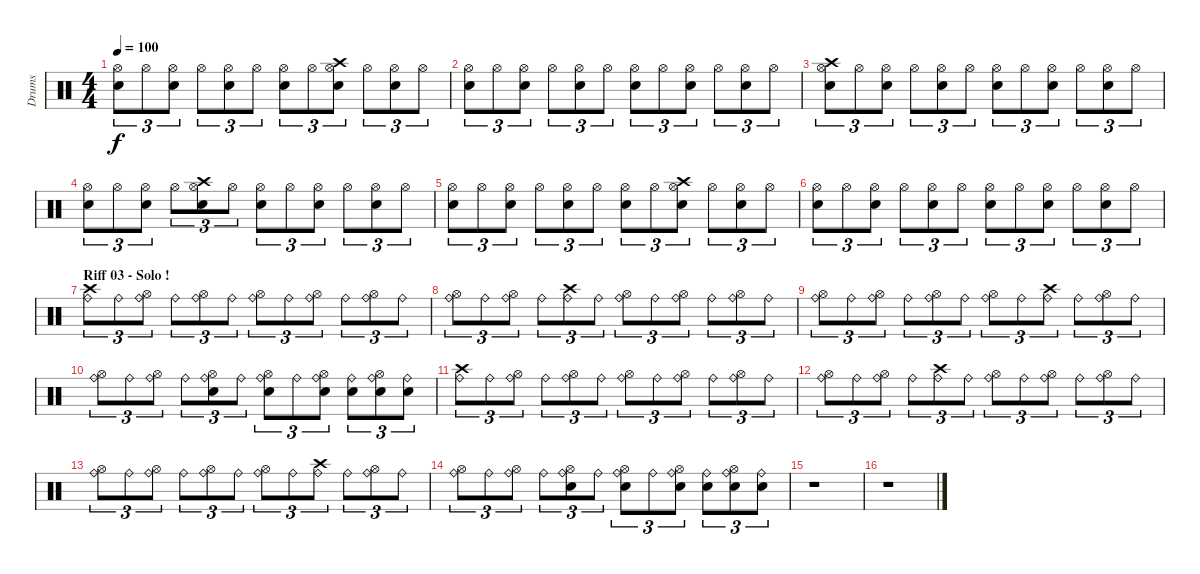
\track ("Drums" "Drums") {instrument percussion}
\staff {score}
\articulation defaults
\ts (4 4)
\tempo 100
\clef neutral
\ks c
("Hi-Hat (open)" "Snare (hit) 2").8{tu (3 2) dy f} "Hi-Hat (open)".8{tu (3 2)} ("Hi-Hat (open)" "Snare (hit) 2").8{tu (3 2)} "Hi-Hat (open)".8{tu (3 2)} ("Hi-Hat (open)" "Snare (hit) 2").8{tu (3 2)} "Hi-Hat (open)".8{tu (3 2)} ("Hi-Hat (open)" "Snare (hit) 2").8{tu (3 2)} "Hi-Hat (open)".8{tu (3 2)} ("Hi-Hat (open)" "Snare (hit) 2" "Crash high (hit)").8{tu (3 2)} "Hi-Hat (open)".8{tu (3 2)} ("Hi-Hat (open)" "Snare (hit) 2").8{tu (3 2)} "Hi-Hat (open)".8{tu (3 2)} |
("Hi-Hat (open)" "Snare (hit) 2").8{tu (3 2)} "Hi-Hat (open)".8{tu (3 2)} ("Hi-Hat (open)" "Snare (hit) 2").8{tu (3 2)} "Hi-Hat (open)".8{tu (3 2)} ("Hi-Hat (open)" "Snare (hit) 2").8{tu (3 2)} "Hi-Hat (open)".8{tu (3 2)} ("Hi-Hat (open)" "Snare (hit) 2").8{tu (3 2)} "Hi-Hat (open)".8{tu (3 2)} ("Hi-Hat (open)" "Snare (hit) 2").8{tu (3 2)} "Hi-Hat (open)".8{tu (3 2)} ("Hi-Hat (open)" "Snare (hit) 2").8{tu (3 2)} "Hi-Hat (open)".8{tu (3 2)} |
("Hi-Hat (open)" "Snare (hit) 2" "Crash high (hit)").8{tu (3 2)} "Hi-Hat (open)".8{tu (3 2)} ("Hi-Hat (open)" "Snare (hit) 2").8{tu (3 2)} "Hi-Hat (open)".8{tu (3 2)} ("Hi-Hat (open)" "Snare (hit) 2").8{tu (3 2)} "Hi-Hat (open)".8{tu (3 2)} ("Hi-Hat (open)" "Snare (hit) 2").8{tu (3 2)} "Hi-Hat (open)".8{tu (3 2)} ("Hi-Hat (open)" "Snare (hit) 2").8{tu (3 2)} "Hi-Hat (open)".8{tu (3 2)} ("Hi-Hat (open)" "Snare (hit) 2").8{tu (3 2)} "Hi-Hat (open)".8{tu (3 2)} |
("Hi-Hat (open)" "Snare (hit) 2").8{tu (3 2)} "Hi-Hat (open)".8{tu (3 2)} ("Hi-Hat (open)" "Snare (hit) 2").8{tu (3 2)} "Hi-Hat (open)".8{tu (3 2)} ("Hi-Hat (open)" "Snare (hit) 2" "Crash high (hit)").8{tu (3 2)} "Hi-Hat (open)".8{tu (3 2)} ("Hi-Hat (open)" "Snare (hit) 2").8{tu (3 2)} "Hi-Hat (open)".8{tu (3 2)} ("Hi-Hat (open)" "Snare (hit) 2").8{tu (3 2)} "Hi-Hat (open)".8{tu (3 2)} ("Hi-Hat (open)" "Snare (hit) 2").8{tu (3 2)} "Hi-Hat (open)".8{tu (3 2)} |
("Hi-Hat (open)" "Snare (hit) 2").8{tu (3 2)} "Hi-Hat (open)".8{tu (3 2)} ("Hi-Hat (open)" "Snare (hit) 2").8{tu (3 2)} "Hi-Hat (open)".8{tu (3 2)} ("Hi-Hat (open)" "Snare (hit) 2").8{tu (3 2)} "Hi-Hat (open)".8{tu (3 2)} ("Hi-Hat (open)" "Snare (hit) 2").8{tu (3 2)} "Hi-Hat (open)".8{tu (3 2)} ("Hi-Hat (open)" "Snare (hit) 2" "Crash high (hit)").8{tu (3 2)} "Hi-Hat (open)".8{tu (3 2)} ("Hi-Hat (open)" "Snare (hit) 2").8{tu (3 2)} "Hi-Hat (open)".8{tu (3 2)} |
("Hi-Hat (open)" "Snare (hit) 2").8{tu (3 2)} "Hi-Hat (open)".8{tu (3 2)} ("Hi-Hat (open)" "Snare (hit) 2").8{tu (3 2)} "Hi-Hat (open)".8{tu (3 2)} ("Hi-Hat (open)" "Snare (hit) 2").8{tu (3 2)} "Hi-Hat (open)".8{tu (3 2)} ("Hi-Hat (open)" "Snare (hit) 2").8{tu (3 2)} "Hi-Hat (open)".8{tu (3 2)} ("Hi-Hat (open)" "Snare (hit) 2").8{tu (3 2)} "Hi-Hat (open)".8{tu (3 2)} ("Hi-Hat (open)" "Snare (hit) 2").8{tu (3 2)} "Hi-Hat (open)".8{tu (3 2)} |
\section ("" "Riff 03 - Solo !")
("Ride (bell)" "Crash high (hit)").8{tu (3 2)} "Ride (bell)".8{tu (3 2)} ("Ride (bell)" "Hi-Hat (open)").8{tu (3 2)} "Ride (bell)".8{tu (3 2)} ("Ride (bell)" "Hi-Hat (open)").8{tu (3 2)} "Ride (bell)".8{tu (3 2)} ("Ride (bell)" "Hi-Hat (open)").8{tu (3 2)} "Ride (bell)".8{tu (3 2)} ("Ride (bell)" "Hi-Hat (open)").8{tu (3 2)} "Ride (bell)".8{tu (3 2)} ("Ride (bell)" "Hi-Hat (open)").8{tu (3 2)} "Ride (bell)".8{tu (3 2)} |
("Ride (bell)" "Hi-Hat (open)").8{tu (3 2)} "Ride (bell)".8{tu (3 2)} ("Ride (bell)" "Hi-Hat (open)").8{tu (3 2)} "Ride (bell)".8{tu (3 2)} ("Ride (bell)" "Crash high (hit)").8{tu (3 2)} "Ride (bell)".8{tu (3 2)} ("Ride (bell)" "Hi-Hat (open)").8{tu (3 2)} "Ride (bell)".8{tu (3 2)} ("Ride (bell)" "Hi-Hat (open)").8{tu (3 2)} "Ride (bell)".8{tu (3 2)} ("Ride (bell)" "Hi-Hat (open)").8{tu (3 2)} "Ride (bell)".8{tu (3 2)} |
("Ride (bell)" "Hi-Hat (open)").8{tu (3 2)} "Ride (bell)".8{tu (3 2)} ("Ride (bell)" "Hi-Hat (open)").8{tu (3 2)} "Ride (bell)".8{tu (3 2)} ("Ride (bell)" "Hi-Hat (open)").8{tu (3 2)} "Ride (bell)".8{tu (3 2)} ("Ride (bell)" "Hi-Hat (open)").8{tu (3 2)} "Ride (bell)".8{tu (3 2)} ("Ride (bell)" "Crash high (hit)").8{tu (3 2)} "Ride (bell)".8{tu (3 2)} ("Ride (bell)" "Hi-Hat (open)").8{tu (3 2)} "Ride (bell)".8{tu (3 2)} |
("Ride (bell)" "Hi-Hat (open)").8{tu (3 2)} "Ride (bell)".8{tu (3 2)} ("Ride (bell)" "Hi-Hat (open)").8{tu (3 2)} "Ride (bell)".8{tu (3 2)} ("Ride (bell)" "Snare (hit) 2" "Hi-Hat (open)").8{tu (3 2)} "Ride (bell)".8{tu (3 2)} ("Ride (bell)" "Snare (hit) 2" "Hi-Hat (open)").8{tu (3 2)} "Ride (bell)".8{tu (3 2)} ("Ride (bell)" "Snare (hit) 2" "Hi-Hat (open)").8{tu (3 2)} ("Ride (bell)" "Snare (hit) 2").8{tu (3 2)} ("Ride (bell)" "Snare (hit) 2" "Hi-Hat (open)").8{tu (3 2)} ("Ride (bell)" "Snare (hit) 2").8{tu (3 2)} |
("Ride (bell)" "Crash high (hit)").8{tu (3 2)} "Ride (bell)".8{tu (3 2)} ("Ride (bell)" "Hi-Hat (open)").8{tu (3 2)} "Ride (bell)".8{tu (3 2)} ("Ride (bell)" "Hi-Hat (open)").8{tu (3 2)} "Ride (bell)".8{tu (3 2)} ("Ride (bell)" "Hi-Hat (open)").8{tu (3 2)} "Ride (bell)".8{tu (3 2)} ("Ride (bell)" "Hi-Hat (open)").8{tu (3 2)} "Ride (bell)".8{tu (3 2)} ("Ride (bell)" "Hi-Hat (open)").8{tu (3 2)} "Ride (bell)".8{tu (3 2)} |
("Ride (bell)" "Hi-Hat (open)").8{tu (3 2)} "Ride (bell)".8{tu (3 2)} ("Ride (bell)" "Hi-Hat (open)").8{tu (3 2)} "Ride (bell)".8{tu (3 2)} ("Ride (bell)" "Crash high (hit)").8{tu (3 2)} "Ride (bell)".8{tu (3 2)} ("Ride (bell)" "Hi-Hat (open)").8{tu (3 2)} "Ride (bell)".8{tu (3 2)} ("Ride (bell)" "Hi-Hat (open)").8{tu (3 2)} "Ride (bell)".8{tu (3 2)} ("Ride (bell)" "Hi-Hat (open)").8{tu (3 2)} "Ride (bell)".8{tu (3 2)} |
("Ride (bell)" "Hi-Hat (open)").8{tu (3 2)} "Ride (bell)".8{tu (3 2)} ("Ride (bell)" "Hi-Hat (open)").8{tu (3 2)} "Ride (bell)".8{tu (3 2)} ("Ride (bell)" "Hi-Hat (open)").8{tu (3 2)} "Ride (bell)".8{tu (3 2)} ("Ride (bell)" "Hi-Hat (open)").8{tu (3 2)} "Ride (bell)".8{tu (3 2)} ("Ride (bell)" "Crash high (hit)").8{tu (3 2)} "Ride (bell)".8{tu (3 2)} ("Ride (bell)" "Hi-Hat (open)").8{tu (3 2)} "Ride (bell)".8{tu (3 2)} |
("Ride (bell)" "Hi-Hat (open)").8{tu (3 2)} "Ride (bell)".8{tu (3 2)} ("Ride (bell)" "Hi-Hat (open)").8{tu (3 2)} "Ride (bell)".8{tu (3 2)} ("Ride (bell)" "Snare (hit) 2" "Hi-Hat (open)").8{tu (3 2)} "Ride (bell)".8{tu (3 2)} ("Ride (bell)" "Snare (hit) 2" "Hi-Hat (open)").8{tu (3 2)} "Ride (bell)".8{tu (3 2)} ("Ride (bell)" "Snare (hit) 2" "Hi-Hat (open)").8{tu (3 2)} ("Ride (bell)" "Snare (hit) 2").8{tu (3 2)} ("Ride (bell)" "Snare (hit) 2" "Hi-Hat (open)").8{tu (3 2)} ("Ride (bell)" "Snare (hit) 2").8{tu (3 2)} |
r.1 |
r.1
